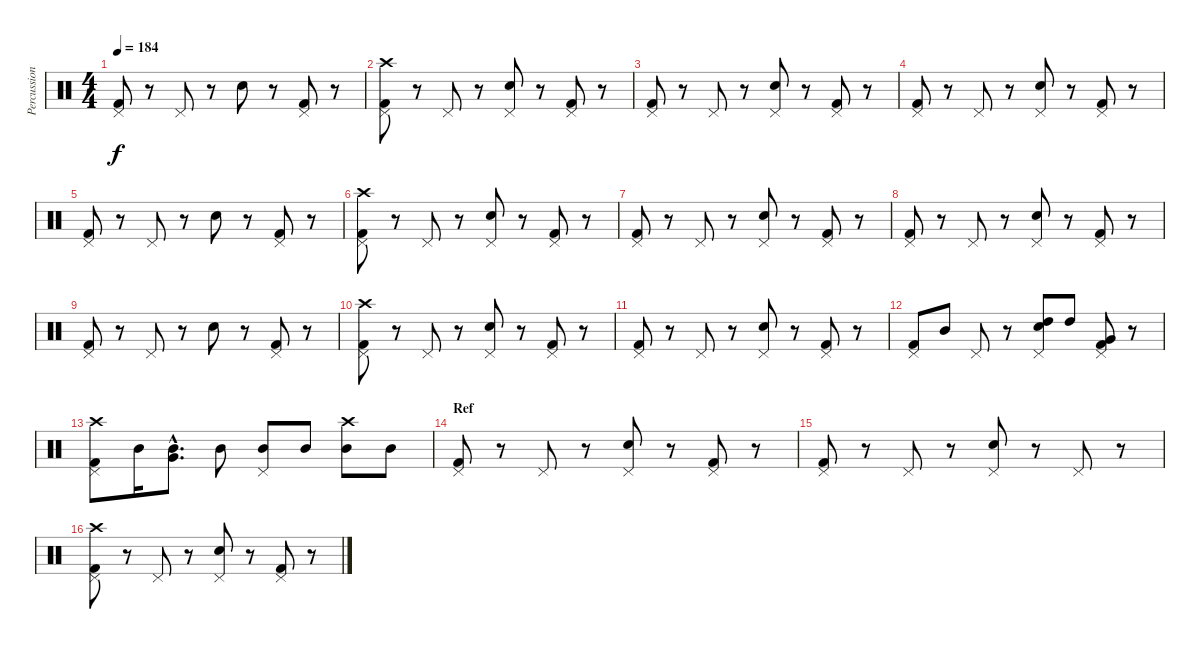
\track ("Percussion" "Percussion") {instrument percussion}
\staff {score}
\articulation defaults
\ts (4 4)
\tempo 184
\clef neutral
\ks c
("Kick (hit) 2" "Pedal Hi-Hat (hit)").8{dy f} r.8 "Pedal Hi-Hat (hit)".8 r.8 "Snare (hit) 2".8 r.8 ("Kick (hit) 2" "Pedal Hi-Hat (hit)").8 r.8 |
("Kick (hit) 2" "Pedal Hi-Hat (hit)" "Crash high (hit)").8 r.8 "Pedal Hi-Hat (hit)".8 r.8 ("Snare (hit) 2" "Pedal Hi-Hat (hit)").8 r.8 ("Kick (hit) 2" "Pedal Hi-Hat (hit)").8 r.8 |
("Kick (hit) 2" "Pedal Hi-Hat (hit)").8 r.8 "Pedal Hi-Hat (hit)".8 r.8 ("Snare (hit) 2" "Pedal Hi-Hat (hit)").8 r.8 ("Kick (hit) 2" "Pedal Hi-Hat (hit)").8 r.8 |
("Kick (hit) 2" "Pedal Hi-Hat (hit)").8 r.8 "Pedal Hi-Hat (hit)".8 r.8 ("Snare (hit) 2" "Pedal Hi-Hat (hit)").8 r.8 ("Kick (hit) 2" "Pedal Hi-Hat (hit)").8 r.8 |
("Kick (hit) 2" "Pedal Hi-Hat (hit)").8 r.8 "Pedal Hi-Hat (hit)".8 r.8 "Snare (hit) 2".8 r.8 ("Kick (hit) 2" "Pedal Hi-Hat (hit)").8 r.8 |
("Kick (hit) 2" "Pedal Hi-Hat (hit)" "Crash high (hit)").8 r.8 "Pedal Hi-Hat (hit)".8 r.8 ("Snare (hit) 2" "Pedal Hi-Hat (hit)").8 r.8 ("Kick (hit) 2" "Pedal Hi-Hat (hit)").8 r.8 |
("Kick (hit) 2" "Pedal Hi-Hat (hit)").8 r.8 "Pedal Hi-Hat (hit)".8 r.8 ("Snare (hit) 2" "Pedal Hi-Hat (hit)").8 r.8 ("Kick (hit) 2" "Pedal Hi-Hat (hit)").8 r.8 |
("Kick (hit) 2" "Pedal Hi-Hat (hit)").8 r.8 "Pedal Hi-Hat (hit)".8 r.8 ("Snare (hit) 2" "Pedal Hi-Hat (hit)").8 r.8 ("Kick (hit) 2" "Pedal Hi-Hat (hit)").8 r.8 |
("Kick (hit) 2" "Pedal Hi-Hat (hit)").8 r.8 "Pedal Hi-Hat (hit)".8 r.8 "Snare (hit) 2".8 r.8 ("Kick (hit) 2" "Pedal Hi-Hat (hit)").8 r.8 |
("Kick (hit) 2" "Pedal Hi-Hat (hit)" "Crash high (hit)").8 r.8 "Pedal Hi-Hat (hit)".8 r.8 ("Snare (hit) 2" "Pedal Hi-Hat (hit)").8 r.8 ("Kick (hit) 2" "Pedal Hi-Hat (hit)").8 r.8 |
("Kick (hit) 2" "Pedal Hi-Hat (hit)").8 r.8 "Pedal Hi-Hat (hit)".8 r.8 ("Snare (hit) 2" "Pedal Hi-Hat (hit)").8 r.8 ("Kick (hit) 2" "Pedal Hi-Hat (hit)").8 r.8 |
("Kick (hit) 2" "Pedal Hi-Hat (hit)").8 "Mid Tom (hit)".8 "Pedal Hi-Hat (hit)".8 r.8 ("Snare (hit) 2" "High Tom (hit)" "Pedal Hi-Hat (hit)").8 "High Tom (hit)".8 ("Kick (hit) 2" "Very Low Tom (hit)" "Pedal Hi-Hat (hit)").8 r.8 |
("Kick (hit) 2" "Pedal Hi-Hat (hit)" "Crash high (hit)").8 "Mid Tom (hit)".16 ("Mid Tom (hit)"{hac} "Very Low Tom (hit)"{hac}).8{d} "Mid Tom (hit)".8 ("Mid Tom (hit)" "Pedal Hi-Hat (hit)").8 "Mid Tom (hit)".8 ("Mid Tom (hit)" "Crash high (hit)").8 "Mid Tom (hit)".8 |
\section ("" "Ref")
("Kick (hit) 2" "Pedal Hi-Hat (hit)").8 r.8 "Pedal Hi-Hat (hit)".8 r.8 ("Snare (hit) 2" "Pedal Hi-Hat (hit)").8 r.8 ("Kick (hit) 2" "Pedal Hi-Hat (hit)").8 r.8 |
("Kick (hit) 2" "Pedal Hi-Hat (hit)").8 r.8 "Pedal Hi-Hat (hit)".8 r.8 ("Snare (hit) 2" "Pedal Hi-Hat (hit)").8 r.8 "Pedal Hi-Hat (hit)".8 r.8 |
("Kick (hit) 2" "Crash high (hit)" "Pedal Hi-Hat (hit)").8 r.8 "Pedal Hi-Hat (hit)".8 r.8 ("Snare (hit) 2" "Pedal Hi-Hat (hit)").8 r.8 ("Kick (hit) 2" "Pedal Hi-Hat (hit)").8 r.8
